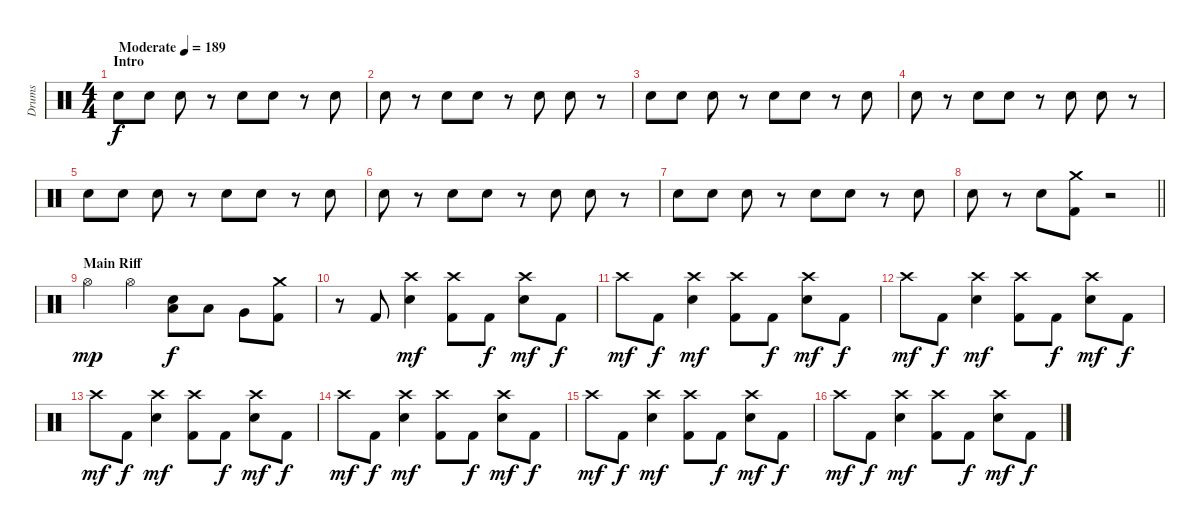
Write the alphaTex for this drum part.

\track ("Drums" "Drums") {instrument percussion}
\staff {score}
\articulation defaults
\ts (4 4)
\section ("" "Intro")
\tempo (189 "Moderate")
\clef neutral
\ks c "Snare (hit) 2".8{dy f} "Snare (hit) 2".8 "Snare (hit) 2".8
r.8 "Snare (hit) 2".8 "Snare (hit) 2".8 r.8 "Snare (hit) 2".8 |
"Snare (hit) 2".8 r.8 "Snare (hit) 2".8 "Snare (hit) 2".8 r.8 "Snare (hit) 2".8 "Snare (hit) 2".8 r.8 |
"Snare (hit) 2".8 "Snare (hit) 2".8 "Snare (hit) 2".8 r.8 "Snare (hit) 2".8 "Snare (hit) 2".8 r.8 "Snare (hit) 2".8 |
"Snare (hit) 2".8 r.8 "Snare (hit) 2".8 "Snare (hit) 2".8 r.8 "Snare (hit) 2".8 "Snare (hit) 2".8 r.8 |
"Snare (hit) 2".8 "Snare (hit) 2".8 "Snare (hit) 2".8 r.8 "Snare (hit) 2".8 "Snare (hit) 2".8 r.8 "Snare (hit) 2".8 |
"Snare (hit) 2".8 r.8 "Snare (hit) 2".8 "Snare (hit) 2".8 r.8 "Snare (hit) 2".8 "Snare (hit) 2".8 r.8 |
"Snare (hit) 2".8 "Snare (hit) 2".8 "Snare (hit) 2".8 r.8 "Snare (hit) 2".8 "Snare (hit) 2".8 r.8 "Snare (hit) 2".8 |
\barLineRight lightlight "Snare (hit) 2".8
r.8 "Snare (hit) 2".8 ("Crash medium (hit)" "Kick (hit) 2").8 r.2 |
\section ("" "Main Riff")
"Hi-Hat (open)".4{dy mp} "Hi-Hat (open)".4 ("Low Floor Tom (hit)" "Snare (hit) 2").8{dy f} "Low Tom (hit)".8 "Very Low Tom (hit)".8 ("Crash medium (hit)" "Kick (hit) 2").8 |
r.8 "Kick (hit) 2".8 ("Crash high (hit)" "Snare (hit) 2").4{dy mf} ("Crash high (hit)" "Kick (hit) 2").8 "Kick (hit) 2".8{dy f} ("Crash high (hit)" "Snare (hit) 2").8{dy mf} "Kick (hit) 2".8{dy f} |
"Crash high (hit)".8{dy mf} "Kick (hit) 2".8{dy f} ("Crash high (hit)" "Snare (hit) 2").4{dy mf} ("Crash high (hit)" "Kick (hit) 2").8 "Kick (hit) 2".8{dy f} ("Crash high (hit)" "Snare (hit) 2").8{dy mf} "Kick (hit) 2".8{dy f} |
"Crash high (hit)".8{dy mf} "Kick (hit) 2".8{dy f} ("Crash high (hit)" "Snare (hit) 2").4{dy mf} ("Crash high (hit)" "Kick (hit) 2").8 "Kick (hit) 2".8{dy f} ("Crash high (hit)" "Snare (hit) 2").8{dy mf} "Kick (hit) 2".8{dy f} |
"Crash high (hit)".8{dy mf} "Kick (hit) 2".8{dy f} ("Crash high (hit)" "Snare (hit) 2").4{dy mf} ("Crash high (hit)" "Kick (hit) 2").8 "Kick (hit) 2".8{dy f} ("Crash high (hit)" "Snare (hit) 2").8{dy mf} "Kick (hit) 2".8{dy f} |
"Crash high (hit)".8{dy mf} "Kick (hit) 2".8{dy f} ("Crash high (hit)" "Snare (hit) 2").4{dy mf} ("Crash high (hit)" "Kick (hit) 2").8 "Kick (hit) 2".8{dy f} ("Crash high (hit)" "Snare (hit) 2").8{dy mf} "Kick (hit) 2".8{dy f} |
"Crash high (hit)".8{dy mf} "Kick (hit) 2".8{dy f} ("Crash high (hit)" "Snare (hit) 2").4{dy mf} ("Crash high (hit)" "Kick (hit) 2").8 "Kick (hit) 2".8{dy f} ("Crash high (hit)" "Snare (hit) 2").8{dy mf} "Kick (hit) 2".8{dy f} |
"Crash high (hit)".8{dy mf} "Kick (hit) 2".8{dy f} ("Crash high (hit)" "Snare (hit) 2").4{dy mf} ("Crash high (hit)" "Kick (hit) 2").8 "Kick (hit) 2".8{dy f} ("Crash high (hit)" "Snare (hit) 2").8{dy mf} "Kick (hit) 2".8{dy f}
